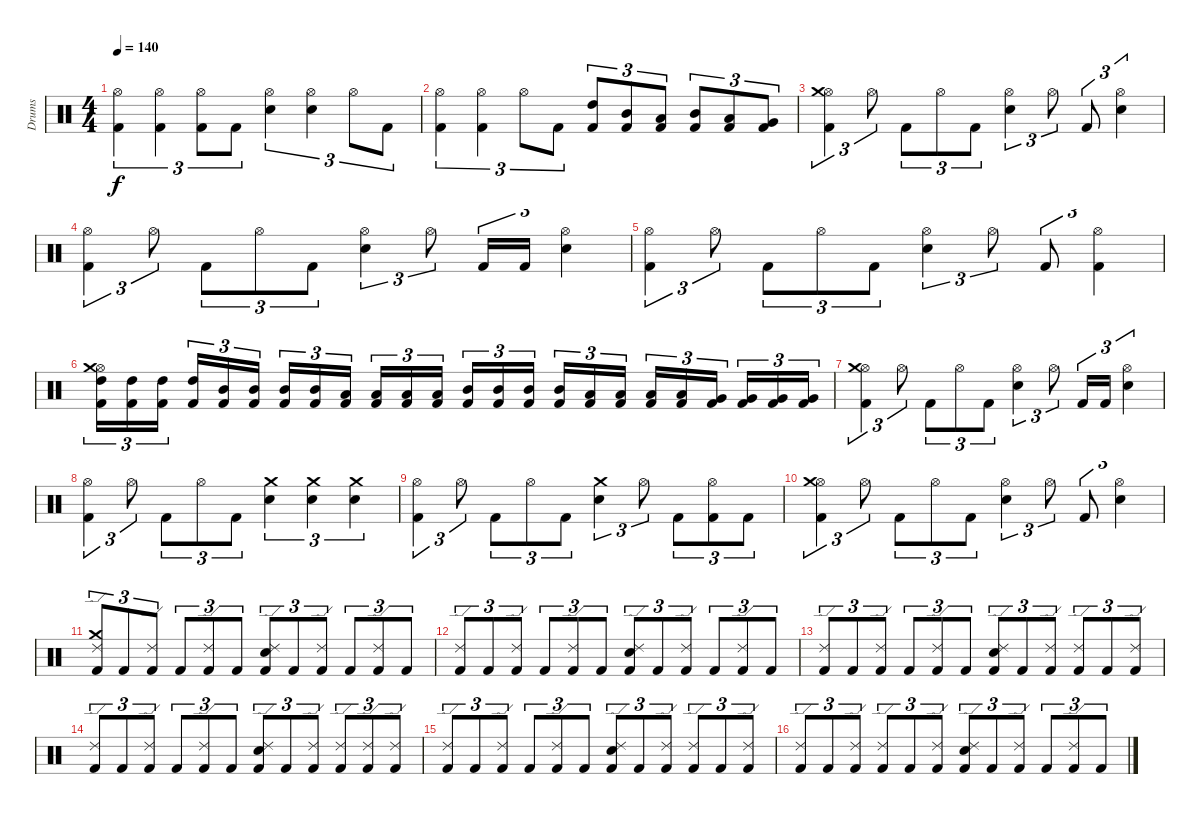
\track ("Drums" "Drums") {instrument percussion}
\staff {score}
\articulation defaults
\ts (4 4)
\tempo 140
\clef neutral
\ks c
("Kick (hit) 2" "Hi-Hat (open)").4{tu (3 2) dy f} ("Kick (hit) 2" "Hi-Hat (open)").4{tu (3 2)} ("Kick (hit) 2" "Hi-Hat (open)").8{tu (3 2)} "Kick (hit) 2".8{tu (3 2)} ("Snare (hit) 2" "Hi-Hat (open)").4{tu (3 2)} ("Snare (hit) 2" "Hi-Hat (open)").4{tu (3 2)} "Hi-Hat (open)".8{tu (3 2)} "Kick (hit) 2".8{tu (3 2)} |
("Kick (hit) 2" "Hi-Hat (open)").4{tu (3 2)} ("Kick (hit) 2" "Hi-Hat (open)").4{tu (3 2)} "Hi-Hat (open)".8{tu (3 2)} "Kick (hit) 2".8{tu (3 2)} ("Kick (hit) 2" "High Tom (hit)").8{tu (3 2)} ("Kick (hit) 2" "Mid Tom (hit)").8{tu (3 2)} ("Kick (hit) 2" "Low Tom (hit)").8{tu (3 2)} ("Kick (hit) 2" "Mid Tom (hit)").8{tu (3 2)} ("Kick (hit) 2" "Low Tom (hit)").8{tu (3 2)} ("Kick (hit) 2" "Very Low Tom (hit)").8{tu (3 2)} |
("Kick (hit) 2" "Hi-Hat (open)" "Crash medium (hit)").4{tu (3 2)} "Hi-Hat (open)".8{tu (3 2)} "Kick (hit) 2".8{tu (3 2)} "Hi-Hat (open)".8{tu (3 2)} "Kick (hit) 2".8{tu (3 2)} ("Snare (hit) 2" "Hi-Hat (open)").4{tu (3 2)} "Hi-Hat (open)".8{tu (3 2)} "Kick (hit) 2".8{tu (3 2)} ("Snare (hit) 2" "Hi-Hat (open)").4{tu (3 2)} |
("Kick (hit) 2" "Hi-Hat (open)").4{tu (3 2)} "Hi-Hat (open)".8{tu (3 2)} "Kick (hit) 2".8{tu (3 2)} "Hi-Hat (open)".8{tu (3 2)} "Kick (hit) 2".8{tu (3 2)} ("Snare (hit) 2" "Hi-Hat (open)").4{tu (3 2)} "Hi-Hat (open)".8{tu (3 2)} "Kick (hit) 2".16{tu (3 2)} "Kick (hit) 2".16{tu (3 2)} ("Snare (hit) 2" "Hi-Hat (open)").4{tu (3 2)} |
("Kick (hit) 2" "Hi-Hat (open)").4{tu (3 2)} "Hi-Hat (open)".8{tu (3 2)} "Kick (hit) 2".8{tu (3 2)} "Hi-Hat (open)".8{tu (3 2)} "Kick (hit) 2".8{tu (3 2)} ("Snare (hit) 2" "Hi-Hat (open)").4{tu (3 2)} "Hi-Hat (open)".8{tu (3 2)} "Kick (hit) 2".8{tu (3 2)} ("Kick (hit) 2" "Hi-Hat (open)").4{tu (3 2)} |
("Kick (hit) 2" "High Tom (hit)" "Hi-Hat (open)" "Crash medium (hit)").16{tu (3 2)} ("Kick (hit) 2" "High Tom (hit)").16{tu (3 2)} ("Kick (hit) 2" "High Tom (hit)").16{tu (3 2)} ("Kick (hit) 2" "High Tom (hit)").16{tu (3 2)} ("Kick (hit) 2" "Mid Tom (hit)").16{tu (3 2)} ("Kick (hit) 2" "Mid Tom (hit)").16{tu (3 2)} ("Kick (hit) 2" "Mid Tom (hit)").16{tu (3 2)} ("Kick (hit) 2" "Mid Tom (hit)").16{tu (3 2)} ("Kick (hit) 2" "Low Tom (hit)").16{tu (3 2)} ("Kick (hit) 2" "Low Tom (hit)").16{tu (3 2)} ("Kick (hit) 2" "Low Tom (hit)").16{tu (3 2)} ("Kick (hit) 2" "Low Tom (hit)").16{tu (3 2)} ("Kick (hit) 2" "Mid Tom (hit)").16{tu (3 2)} ("Kick (hit) 2" "Mid Tom (hit)").16{tu (3 2)} ("Kick (hit) 2" "Mid Tom (hit)").16{tu (3 2)} ("Kick (hit) 2" "Mid Tom (hit)").16{tu (3 2)} ("Kick (hit) 2" "Low Tom (hit)").16{tu (3 2)} ("Kick (hit) 2" "Low Tom (hit)").16{tu (3 2)} ("Kick (hit) 2" "Low Tom (hit)").16{tu (3 2)} ("Kick (hit) 2" "Low Tom (hit)").16{tu (3 2)} ("Kick (hit) 2" "Very Low Tom (hit)").16{tu (3 2)} ("Kick (hit) 2" "Very Low Tom (hit)").16{tu (3 2)} ("Kick (hit) 2" "Very Low Tom (hit)").16{tu (3 2)} ("Kick (hit) 2" "Very Low Tom (hit)").16{tu (3 2)} |
("Kick (hit) 2" "Hi-Hat (open)" "Crash medium (hit)").4{tu (3 2)} "Hi-Hat (open)".8{tu (3 2)} "Kick (hit) 2".8{tu (3 2)} "Hi-Hat (open)".8{tu (3 2)} "Kick (hit) 2".8{tu (3 2)} ("Snare (hit) 2" "Hi-Hat (open)").4{tu (3 2)} "Hi-Hat (open)".8{tu (3 2)} "Kick (hit) 2".16{tu (3 2)} "Kick (hit) 2".16{tu (3 2)} ("Snare (hit) 2" "Hi-Hat (open)").4{tu (3 2)} |
("Kick (hit) 2" "Hi-Hat (open)").4{tu (3 2)} "Hi-Hat (open)".8{tu (3 2)} "Kick (hit) 2".8{tu (3 2)} "Hi-Hat (open)".8{tu (3 2)} "Kick (hit) 2".8{tu (3 2)} ("Snare (hit) 2" "Crash medium (hit)").4{tu (3 2)} ("Snare (hit) 2" "Crash medium (hit)").4{tu (3 2)} ("Snare (hit) 2" "Crash medium (hit)").4{tu (3 2)} |
("Kick (hit) 2" "Hi-Hat (open)").4{tu (3 2)} "Hi-Hat (open)".8{tu (3 2)} "Kick (hit) 2".8{tu (3 2)} "Hi-Hat (open)".8{tu (3 2)} "Kick (hit) 2".8{tu (3 2)} ("Snare (hit) 2" "Crash medium (hit)").4{tu (3 2)} "Hi-Hat (open)".8{tu (3 2)} "Kick (hit) 2".8{tu (3 2)} ("Kick (hit) 2" "Hi-Hat (open)").8{tu (3 2)} "Kick (hit) 2".8{tu (3 2)} |
("Kick (hit) 2" "Hi-Hat (open)" "Crash medium (hit)").4{tu (3 2)} "Hi-Hat (open)".8{tu (3 2)} "Kick (hit) 2".8{tu (3 2)} "Hi-Hat (open)".8{tu (3 2)} "Kick (hit) 2".8{tu (3 2)} ("Snare (hit) 2" "Hi-Hat (open)").4{tu (3 2)} "Hi-Hat (open)".8{tu (3 2)} "Kick (hit) 2".8{tu (3 2)} ("Snare (hit) 2" "Hi-Hat (open)").4{tu (3 2)} |
("Kick (hit) 2" "Ride (edge) 2" "Crash medium (hit)").8{tu (3 2)} "Kick (hit) 2".8{tu (3 2)} ("Kick (hit) 2" "Ride (edge) 2").8{tu (3 2)} "Kick (hit) 2".8{tu (3 2)} ("Kick (hit) 2" "Ride (edge) 2").8{tu (3 2)} "Kick (hit) 2".8{tu (3 2)} ("Kick (hit) 2" "Snare (hit) 2" "Ride (edge) 2").8{tu (3 2)} "Kick (hit) 2".8{tu (3 2)} ("Kick (hit) 2" "Ride (edge) 2").8{tu (3 2)} "Kick (hit) 2".8{tu (3 2)} ("Kick (hit) 2" "Ride (edge) 2").8{tu (3 2)} "Kick (hit) 2".8{tu (3 2)} |
("Kick (hit) 2" "Ride (edge) 2").8{tu (3 2)} "Kick (hit) 2".8{tu (3 2)} ("Kick (hit) 2" "Ride (edge) 2").8{tu (3 2)} "Kick (hit) 2".8{tu (3 2)} ("Kick (hit) 2" "Ride (edge) 2").8{tu (3 2)} "Kick (hit) 2".8{tu (3 2)} ("Kick (hit) 2" "Snare (hit) 2" "Ride (edge) 2").8{tu (3 2)} "Kick (hit) 2".8{tu (3 2)} ("Kick (hit) 2" "Ride (edge) 2").8{tu (3 2)} "Kick (hit) 2".8{tu (3 2)} ("Kick (hit) 2" "Ride (edge) 2").8{tu (3 2)} "Kick (hit) 2".8{tu (3 2)} |
("Kick (hit) 2" "Ride (edge) 2").8{tu (3 2)} "Kick (hit) 2".8{tu (3 2)} ("Kick (hit) 2" "Ride (edge) 2").8{tu (3 2)} "Kick (hit) 2".8{tu (3 2)} ("Kick (hit) 2" "Ride (edge) 2").8{tu (3 2)} "Kick (hit) 2".8{tu (3 2)} ("Kick (hit) 2" "Snare (hit) 2" "Ride (edge) 2").8{tu (3 2)} "Kick (hit) 2".8{tu (3 2)} ("Kick (hit) 2" "Ride (edge) 2").8{tu (3 2)} ("Kick (hit) 2" "Ride (edge) 2").8{tu (3 2)} "Kick (hit) 2".8{tu (3 2)} ("Kick (hit) 2" "Ride (edge) 2").8{tu (3 2)} |
("Kick (hit) 2" "Ride (edge) 2").8{tu (3 2)} "Kick (hit) 2".8{tu (3 2)} ("Kick (hit) 2" "Ride (edge) 2").8{tu (3 2)} "Kick (hit) 2".8{tu (3 2)} ("Kick (hit) 2" "Ride (edge) 2").8{tu (3 2)} "Kick (hit) 2".8{tu (3 2)} ("Kick (hit) 2" "Snare (hit) 2" "Ride (edge) 2").8{tu (3 2)} "Kick (hit) 2".8{tu (3 2)} ("Kick (hit) 2" "Ride (edge) 2").8{tu (3 2)} ("Kick (hit) 2" "Ride (edge) 2").8{tu (3 2)} ("Kick (hit) 2" "Ride (edge) 2").8{tu (3 2)} ("Kick (hit) 2" "Ride (edge) 2").8{tu (3 2)} |
("Kick (hit) 2" "Ride (edge) 2").8{tu (3 2)} "Kick (hit) 2".8{tu (3 2)} ("Kick (hit) 2" "Ride (edge) 2").8{tu (3 2)} "Kick (hit) 2".8{tu (3 2)} ("Kick (hit) 2" "Ride (edge) 2").8{tu (3 2)} "Kick (hit) 2".8{tu (3 2)} ("Kick (hit) 2" "Snare (hit) 2" "Ride (edge) 2").8{tu (3 2)} "Kick (hit) 2".8{tu (3 2)} ("Kick (hit) 2" "Ride (edge) 2").8{tu (3 2)} ("Kick (hit) 2" "Ride (edge) 2").8{tu (3 2)} "Kick (hit) 2".8{tu (3 2)} ("Kick (hit) 2" "Ride (edge) 2").8{tu (3 2)} |
("Kick (hit) 2" "Ride (edge) 2").8{tu (3 2)} "Kick (hit) 2".8{tu (3 2)} ("Kick (hit) 2" "Ride (edge) 2").8{tu (3 2)} ("Kick (hit) 2" "Ride (edge) 2").8{tu (3 2)} "Kick (hit) 2".8{tu (3 2)} ("Kick (hit) 2" "Ride (edge) 2").8{tu (3 2)} ("Kick (hit) 2" "Snare (hit) 2" "Ride (edge) 2").8{tu (3 2)} "Kick (hit) 2".8{tu (3 2)} ("Kick (hit) 2" "Ride (edge) 2").8{tu (3 2)} "Kick (hit) 2".8{tu (3 2)} ("Kick (hit) 2" "Ride (edge) 2").8{tu (3 2)} "Kick (hit) 2".8{tu (3 2)}
